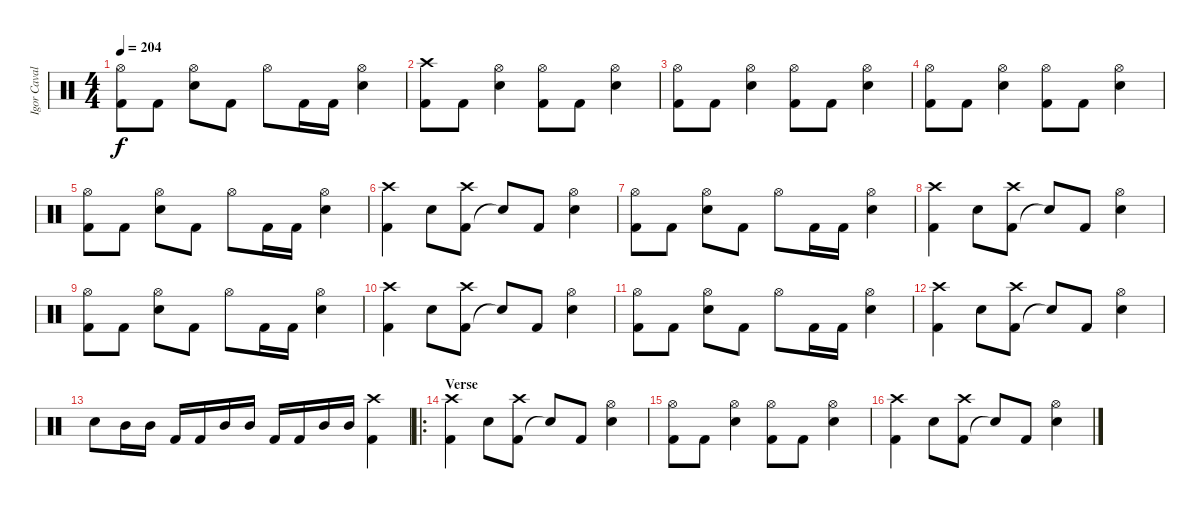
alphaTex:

\track ("Igor Cavalera" "Igor Caval") {instrument percussion}
\staff {score}
\articulation defaults
\ts (4 4)
\tempo 204
\clef neutral
\ks c
("Kick (hit) 2" "Hi-Hat (open)").8{dy f} "Kick (hit) 2".8 ("Snare (hit) 2" "Hi-Hat (open)").8 "Kick (hit) 2".8 "Hi-Hat (open)".8 "Kick (hit) 2".16 "Kick (hit) 2".16 ("Snare (hit) 2" "Hi-Hat (open)").4 |
("Kick (hit) 2" "Crash high (hit)").8 "Kick (hit) 2".8 ("Snare (hit) 2" "Hi-Hat (open)").4 ("Kick (hit) 2" "Hi-Hat (open)").8 "Kick (hit) 2".8 ("Snare (hit) 2" "Hi-Hat (open)").4 |
("Kick (hit) 2" "Hi-Hat (open)").8 "Kick (hit) 2".8 ("Snare (hit) 2" "Hi-Hat (open)").4 ("Kick (hit) 2" "Hi-Hat (open)").8 "Kick (hit) 2".8 ("Snare (hit) 2" "Hi-Hat (open)").4 |
("Kick (hit) 2" "Hi-Hat (open)").8 "Kick (hit) 2".8 ("Snare (hit) 2" "Hi-Hat (open)").4 ("Kick (hit) 2" "Hi-Hat (open)").8 "Kick (hit) 2".8 ("Snare (hit) 2" "Hi-Hat (open)").4 |
("Kick (hit) 2" "Hi-Hat (open)").8 "Kick (hit) 2".8 ("Snare (hit) 2" "Hi-Hat (open)").8 "Kick (hit) 2".8 "Hi-Hat (open)".8 "Kick (hit) 2".16 "Kick (hit) 2".16 ("Snare (hit) 2" "Hi-Hat (open)").4 |
("Kick (hit) 2" "Crash high (hit)").4 "Snare (hit) 2".8 ("Kick (hit) 2" "Crash high (hit)").8 "Snare (hit)"{t}.8 "Kick (hit) 2".8 ("Snare (hit) 2" "Hi-Hat (open)").4 |
("Kick (hit) 2" "Hi-Hat (open)").8 "Kick (hit) 2".8 ("Snare (hit) 2" "Hi-Hat (open)").8 "Kick (hit) 2".8 "Hi-Hat (open)".8 "Kick (hit) 2".16 "Kick (hit) 2".16 ("Snare (hit) 2" "Hi-Hat (open)").4 |
("Kick (hit) 2" "Crash high (hit)").4 "Snare (hit) 2".8 ("Kick (hit) 2" "Crash high (hit)").8 "Snare (hit)"{t}.8 "Kick (hit) 2".8 ("Snare (hit) 2" "Hi-Hat (open)").4 |
("Kick (hit) 2" "Hi-Hat (open)").8 "Kick (hit) 2".8 ("Snare (hit) 2" "Hi-Hat (open)").8 "Kick (hit) 2".8 "Hi-Hat (open)".8 "Kick (hit) 2".16 "Kick (hit) 2".16 ("Snare (hit) 2" "Hi-Hat (open)").4 |
("Kick (hit) 2" "Crash high (hit)").4 "Snare (hit) 2".8 ("Kick (hit) 2" "Crash high (hit)").8 "Snare (hit)"{t}.8 "Kick (hit) 2".8 ("Snare (hit) 2" "Hi-Hat (open)").4 |
("Kick (hit) 2" "Hi-Hat (open)").8 "Kick (hit) 2".8 ("Snare (hit) 2" "Hi-Hat (open)").8 "Kick (hit) 2".8 "Hi-Hat (open)".8 "Kick (hit) 2".16 "Kick (hit) 2".16 ("Snare (hit) 2" "Hi-Hat (open)").4 |
("Kick (hit) 2" "Crash high (hit)").4 "Snare (hit) 2".8 ("Kick (hit) 2" "Crash high (hit)").8 "Snare (hit)"{t}.8 "Kick (hit) 2".8 ("Snare (hit) 2" "Hi-Hat (open)").4 |
"Snare (hit) 2".8 "Mid Tom (hit)".16 "Mid Tom (hit)".16 "Kick (hit) 2".16 "Kick (hit) 2".16 "Mid Tom (hit)".16 "Mid Tom (hit)".16 "Kick (hit) 2".16 "Kick (hit) 2".16 "Mid Tom (hit)".16 "Mid Tom (hit)".16 ("Kick (hit) 2" "Crash high (hit)").4 |
\ro
\section ("" "Verse")
("Kick (hit) 2" "Crash high (hit)").4 "Snare (hit) 2".8 ("Kick (hit) 2" "Crash high (hit)").8 "Snare (hit)"{t}.8 "Kick (hit) 2".8 ("Snare (hit) 2" "Hi-Hat (open)").4 |
("Kick (hit) 2" "Hi-Hat (open)").8 "Kick (hit) 2".8 ("Snare (hit) 2" "Hi-Hat (open)").4 ("Kick (hit) 2" "Hi-Hat (open)").8 "Kick (hit) 2".8 ("Snare (hit) 2" "Hi-Hat (open)").4 |
("Kick (hit) 2" "Crash high (hit)").4 "Snare (hit) 2".8 ("Kick (hit) 2" "Crash high (hit)").8 "Snare (hit)"{t}.8 "Kick (hit) 2".8 ("Snare (hit) 2" "Hi-Hat (open)").4
